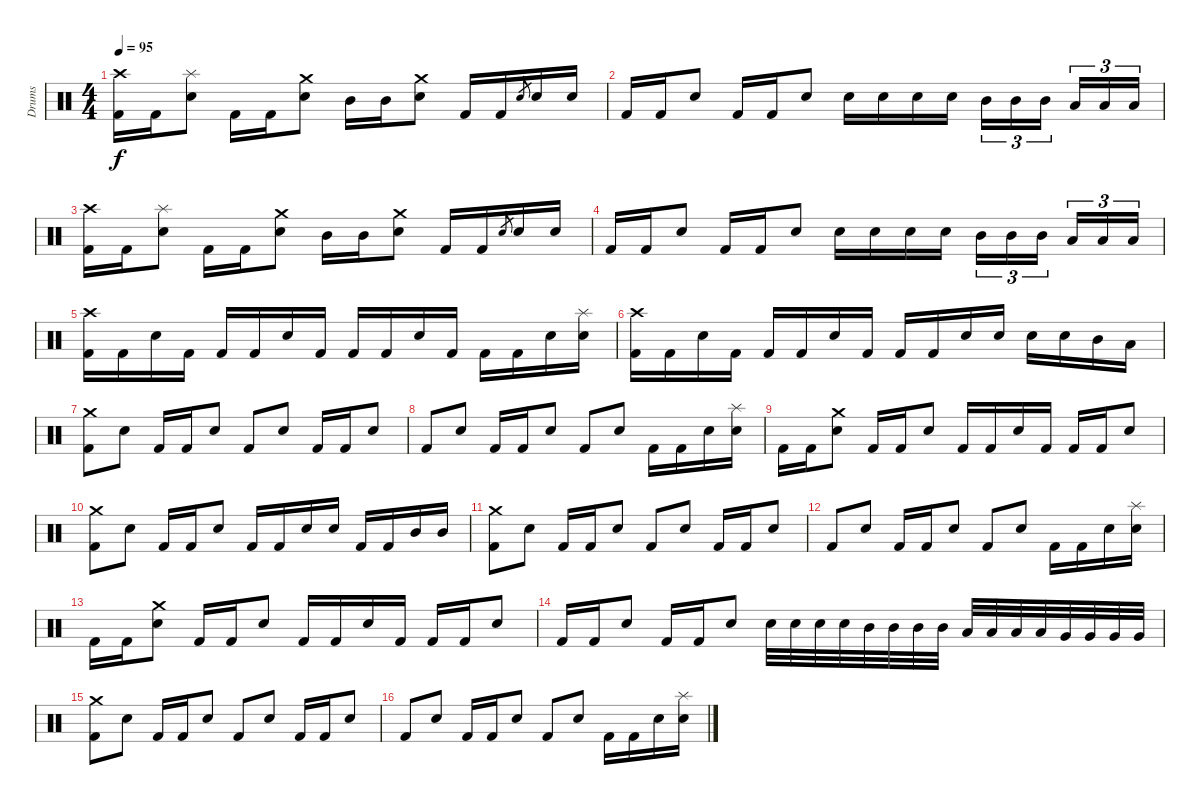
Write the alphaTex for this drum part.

\track ("Drums" "Drums") {instrument percussion}
\staff {score}
\articulation defaults
\ts (4 4)
\tempo 95
\clef neutral
\ks c
("Crash high (hit)" "Kick (hit) 2").16{dy f} "Kick (hit) 2".16 ("Splash (hit)" "Electric Snare (hit)").8 "Kick (hit) 2".16 "Kick (hit) 2".16 ("Crash medium (hit)" "Electric Snare (hit)").8 "Mid Tom (hit)".16 "Mid Tom (hit)".16 ("Crash medium (hit)" "Electric Snare (hit)").8 "Kick (hit) 2".16 "Kick (hit) 2".16 "Electric Snare (hit)".8{gr} "Electric Snare (hit)".16 "Electric Snare (hit)".16 |
"Kick (hit) 2".16 "Kick (hit) 2".16 "Electric Snare (hit)".8 "Kick (hit) 2".16 "Kick (hit) 2".16 "Electric Snare (hit)".8 "Electric Snare (hit)".16 "Electric Snare (hit)".16 "Electric Snare (hit)".16 "Electric Snare (hit)".16 "Mid Tom (hit)".16{tu (3 2)} "Mid Tom (hit)".16{tu (3 2)} "Mid Tom (hit)".16{tu (3 2)} "Low Tom (hit)".16{tu (3 2)} "Low Tom (hit)".16{tu (3 2)} "Low Tom (hit)".16{tu (3 2)} |
("Crash high (hit)" "Kick (hit) 2").16 "Kick (hit) 2".16 ("Splash (hit)" "Electric Snare (hit)").8 "Kick (hit) 2".16 "Kick (hit) 2".16 ("Crash medium (hit)" "Electric Snare (hit)").8 "Mid Tom (hit)".16 "Mid Tom (hit)".16 ("Crash medium (hit)" "Electric Snare (hit)").8 "Kick (hit) 2".16 "Kick (hit) 2".16 "Electric Snare (hit)".8{gr} "Electric Snare (hit)".16 "Electric Snare (hit)".16 |
"Kick (hit) 2".16 "Kick (hit) 2".16 "Electric Snare (hit)".8 "Kick (hit) 2".16 "Kick (hit) 2".16 "Electric Snare (hit)".8 "Electric Snare (hit)".16 "Electric Snare (hit)".16 "Electric Snare (hit)".16 "Electric Snare (hit)".16 "Mid Tom (hit)".16{tu (3 2)} "Mid Tom (hit)".16{tu (3 2)} "Mid Tom (hit)".16{tu (3 2)} "Low Tom (hit)".16{tu (3 2)} "Low Tom (hit)".16{tu (3 2)} "Low Tom (hit)".16{tu (3 2)} |
("Crash high (hit)" "Kick (hit) 2").16 "Kick (hit) 2".16 "Electric Snare (hit)".16 "Kick (hit) 2".16 "Kick (hit) 2".16 "Kick (hit) 2".16 "Electric Snare (hit)".16 "Kick (hit) 2".16 "Kick (hit) 2".16 "Kick (hit) 2".16 "Electric Snare (hit)".16 "Kick (hit) 2".16 "Kick (hit) 2".16 "Kick (hit) 2".16 "Electric Snare (hit)".16 ("Splash (hit)" "Electric Snare (hit)").16 |
("Crash high (hit)" "Kick (hit) 2").16 "Kick (hit) 2".16 "Electric Snare (hit)".16 "Kick (hit) 2".16 "Kick (hit) 2".16 "Kick (hit) 2".16 "Electric Snare (hit)".16 "Kick (hit) 2".16 "Kick (hit) 2".16 "Kick (hit) 2".16 "Electric Snare (hit)".16 "Electric Snare (hit)".16 "Electric Snare (hit)".16 "Electric Snare (hit)".16 "Mid Tom (hit)".16 "Low Tom (hit)".16 |
("Crash medium (hit)" "Kick (hit) 2").8 "Electric Snare (hit)".8 "Kick (hit) 2".16 "Kick (hit) 2".16 "Electric Snare (hit)".8 "Kick (hit) 2".8 "Electric Snare (hit)".8 "Kick (hit) 2".16 "Kick (hit) 2".16 "Electric Snare (hit)".8 |
"Kick (hit) 2".8 "Electric Snare (hit)".8 "Kick (hit) 2".16 "Kick (hit) 2".16 "Electric Snare (hit)".8 "Kick (hit) 2".8 "Electric Snare (hit)".8 "Kick (hit) 2".16 "Kick (hit) 2".16 "Electric Snare (hit)".16 ("Splash (hit)" "Electric Snare (hit)").16 |
"Kick (hit) 2".16 "Kick (hit) 2".16 ("Crash medium (hit)" "Electric Snare (hit)").8 "Kick (hit) 2".16 "Kick (hit) 2".16 "Electric Snare (hit)".8 "Kick (hit) 2".16 "Kick (hit) 2".16 "Electric Snare (hit)".16 "Kick (hit) 2".16 "Kick (hit) 2".16 "Kick (hit) 2".16 "Electric Snare (hit)".8 |
("Crash medium (hit)" "Kick (hit) 2").8 "Electric Snare (hit)".8 "Kick (hit) 2".16 "Kick (hit) 2".16 "Electric Snare (hit)".8 "Kick (hit) 2".16 "Kick (hit) 2".16 "Electric Snare (hit)".16 "Electric Snare (hit)".16 "Kick (hit) 2".16 "Kick (hit) 2".16 "Mid Tom (hit)".16 "Mid Tom (hit)".16 |
("Crash medium (hit)" "Kick (hit) 2").8 "Electric Snare (hit)".8 "Kick (hit) 2".16 "Kick (hit) 2".16 "Electric Snare (hit)".8 "Kick (hit) 2".8 "Electric Snare (hit)".8 "Kick (hit) 2".16 "Kick (hit) 2".16 "Electric Snare (hit)".8 |
"Kick (hit) 2".8 "Electric Snare (hit)".8 "Kick (hit) 2".16 "Kick (hit) 2".16 "Electric Snare (hit)".8 "Kick (hit) 2".8 "Electric Snare (hit)".8 "Kick (hit) 2".16 "Kick (hit) 2".16 "Electric Snare (hit)".16 ("Splash (hit)" "Electric Snare (hit)").16 |
"Kick (hit) 2".16 "Kick (hit) 2".16 ("Crash medium (hit)" "Electric Snare (hit)").8 "Kick (hit) 2".16 "Kick (hit) 2".16 "Electric Snare (hit)".8 "Kick (hit) 2".16 "Kick (hit) 2".16 "Electric Snare (hit)".16 "Kick (hit) 2".16 "Kick (hit) 2".16 "Kick (hit) 2".16 "Electric Snare (hit)".8 |
"Kick (hit) 2".16 "Kick (hit) 2".16 "Electric Snare (hit)".8 "Kick (hit) 2".16 "Kick (hit) 2".16 "Electric Snare (hit)".8 "Electric Snare (hit)".32 "Electric Snare (hit)".32 "Electric Snare (hit)".32 "Electric Snare (hit)".32 "Mid Tom (hit)".32 "Mid Tom (hit)".32 "Mid Tom (hit)".32 "Mid Tom (hit)".32 "Low Tom (hit)".32 "Low Tom (hit)".32 "Low Tom (hit)".32 "Low Tom (hit)".32 "Very Low Tom (hit)".32 "Very Low Tom (hit)".32 "Very Low Tom (hit)".32 "Very Low Tom (hit)".32 |
("Crash medium (hit)" "Kick (hit) 2").8 "Electric Snare (hit)".8 "Kick (hit) 2".16 "Kick (hit) 2".16 "Electric Snare (hit)".8 "Kick (hit) 2".8 "Electric Snare (hit)".8 "Kick (hit) 2".16 "Kick (hit) 2".16 "Electric Snare (hit)".8 |
"Kick (hit) 2".8 "Electric Snare (hit)".8 "Kick (hit) 2".16 "Kick (hit) 2".16 "Electric Snare (hit)".8 "Kick (hit) 2".8 "Electric Snare (hit)".8 "Kick (hit) 2".16 "Kick (hit) 2".16 "Electric Snare (hit)".16 ("Splash (hit)" "Electric Snare (hit)").16
